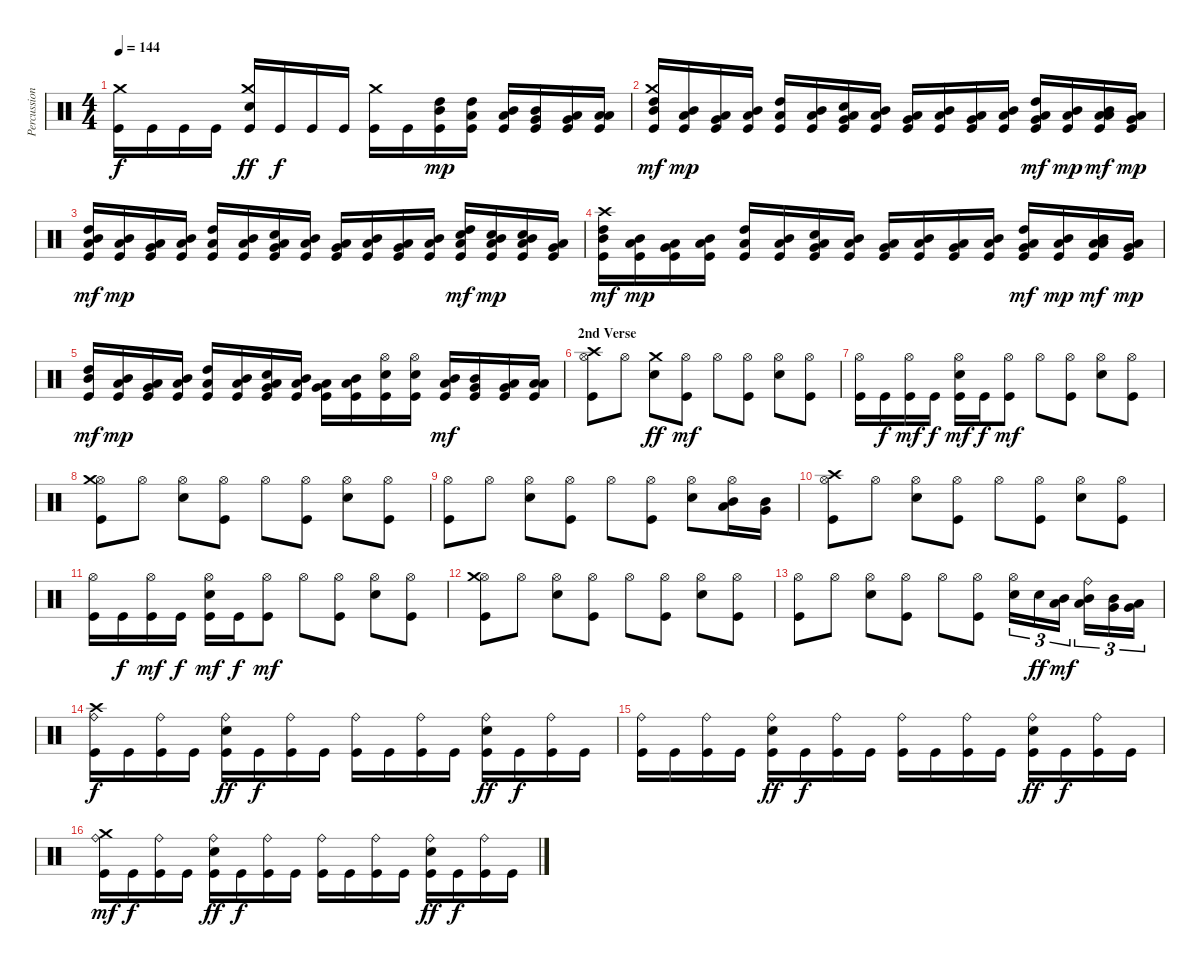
\track ("Percussions" "Percussion") {instrument percussion}
\staff {score}
\articulation defaults
\ts (4 4)
\tempo 144
\clef neutral
\ks c
("Kick (hit)" "Crash medium (hit)").16{dy f} "Kick (hit)".16 "Kick (hit)".16 "Kick (hit)".16 ("Kick (hit)" "Electric Snare (hit)" "Crash medium (hit)").16{dy ff} "Kick (hit)".16{dy f} "Kick (hit)".16 "Kick (hit)".16 ("Kick (hit)" "Crash medium (hit)").16 "Kick (hit)".16 ("Kick (hit)" "Mid Tom (hit)" "High Tom (hit)").16{dy mp} ("Kick (hit)" "Low Tom (hit)" "High Tom (hit)").16 ("Kick (hit)" "Low Tom (hit)" "Mid Tom (hit)").16 ("Kick (hit)" "Very Low Tom (hit)" "Mid Tom (hit)").16 ("Kick (hit)" "Very Low Tom (hit)" "Low Tom (hit)").16 ("Kick (hit)" "Low Floor Tom (hit)" "Low Tom (hit)").16 |
("Kick (hit)" "Mid Tom (hit)" "High Tom (hit)" "Crash medium (hit)").16{dy mf} ("Kick (hit)" "Low Tom (hit)" "Mid Tom (hit)").16{dy mp} ("Kick (hit)" "Very Low Tom (hit)" "Low Tom (hit)").16 ("Kick (hit)" "Low Tom (hit)" "Mid Tom (hit)").16 ("Kick (hit)" "Low Tom (hit)" "High Tom (hit)").16 ("Kick (hit)" "Low Tom (hit)" "Mid Tom (hit)").16 ("Kick (hit)" "Electric Snare (hit)" "Very Low Tom (hit)" "Low Tom (hit)").16 ("Kick (hit)" "Low Tom (hit)" "Mid Tom (hit)").16 ("Kick (hit)" "Very Low Tom (hit)" "Low Tom (hit)").16 ("Kick (hit)" "Low Tom (hit)" "Mid Tom (hit)").16 ("Kick (hit)" "Very Low Tom (hit)" "Low Tom (hit)").16 ("Kick (hit)" "Low Tom (hit)" "Mid Tom (hit)").16 ("Kick (hit)" "Low Tom (hit)" "High Tom (hit)" "Very Low Tom (hit)").16{dy mf} ("Kick (hit)" "Low Tom (hit)" "Mid Tom (hit)").16{dy mp} ("Kick (hit)" "Low Tom (hit)" "Mid Tom (hit)" "Low Floor Tom (hit)").16{dy mf} ("Kick (hit)" "Very Low Tom (hit)" "Low Tom (hit)").16{dy mp} |
("Kick (hit)" "Mid Tom (hit)" "High Tom (hit)" "Low Floor Tom (hit)").16{dy mf} ("Kick (hit)" "Low Tom (hit)" "Mid Tom (hit)").16{dy mp} ("Kick (hit)" "Very Low Tom (hit)" "Low Tom (hit)").16 ("Kick (hit)" "Low Tom (hit)" "Mid Tom (hit)").16 ("Kick (hit)" "Low Tom (hit)" "High Tom (hit)").16 ("Kick (hit)" "Low Tom (hit)" "Mid Tom (hit)").16 ("Kick (hit)" "Electric Snare (hit)" "Very Low Tom (hit)" "Low Tom (hit)").16 ("Kick (hit)" "Low Tom (hit)" "Mid Tom (hit)").16 ("Kick (hit)" "Very Low Tom (hit)" "Low Tom (hit)").16 ("Kick (hit)" "Low Tom (hit)" "Mid Tom (hit)").16 ("Kick (hit)" "Very Low Tom (hit)" "Low Tom (hit)").16 ("Kick (hit)" "Low Tom (hit)" "Mid Tom (hit)").16 ("Kick (hit)" "Electric Snare (hit)" "Low Tom (hit)" "High Tom (hit)").16{dy mf} ("Kick (hit)" "Electric Snare (hit)" "Low Tom (hit)" "Mid Tom (hit)").16{dy mp} ("Kick (hit)" "Electric Snare (hit)" "Low Tom (hit)" "Mid Tom (hit)").16 ("Kick (hit)" "Very Low Tom (hit)" "Low Tom (hit)").16 |
("Kick (hit)" "Mid Tom (hit)" "High Tom (hit)" "Crash high (hit)").16{dy mf} ("Kick (hit)" "Low Tom (hit)" "Mid Tom (hit)").16{dy mp} ("Kick (hit)" "Very Low Tom (hit)" "Low Tom (hit)").16 ("Kick (hit)" "Low Tom (hit)" "Mid Tom (hit)").16 ("Kick (hit)" "Low Tom (hit)" "High Tom (hit)").16 ("Kick (hit)" "Low Tom (hit)" "Mid Tom (hit)").16 ("Kick (hit)" "Electric Snare (hit)" "Very Low Tom (hit)" "Low Tom (hit)").16 ("Kick (hit)" "Low Tom (hit)" "Mid Tom (hit)").16 ("Kick (hit)" "Very Low Tom (hit)" "Low Tom (hit)").16 ("Kick (hit)" "Low Tom (hit)" "Mid Tom (hit)").16 ("Kick (hit)" "Very Low Tom (hit)" "Low Tom (hit)").16 ("Kick (hit)" "Low Tom (hit)" "Mid Tom (hit)").16 ("Kick (hit)" "Low Tom (hit)" "High Tom (hit)" "Very Low Tom (hit)").16{dy mf} ("Kick (hit)" "Low Tom (hit)" "Mid Tom (hit)").16{dy mp} ("Kick (hit)" "Low Tom (hit)" "Mid Tom (hit)" "Low Floor Tom (hit)").16{dy mf} ("Kick (hit)" "Very Low Tom (hit)" "Low Tom (hit)").16{dy mp} |
("Kick (hit)" "Mid Tom (hit)" "High Tom (hit)").16{dy mf} ("Kick (hit)" "Low Tom (hit)" "Mid Tom (hit)").16{dy mp} ("Kick (hit)" "Very Low Tom (hit)" "Low Tom (hit)").16 ("Kick (hit)" "Low Tom (hit)" "Mid Tom (hit)").16 ("Kick (hit)" "Low Tom (hit)" "High Tom (hit)").16 ("Kick (hit)" "Low Tom (hit)" "Mid Tom (hit)").16 ("Kick (hit)" "Electric Snare (hit)" "Very Low Tom (hit)" "Low Tom (hit)").16 ("Kick (hit)" "Low Tom (hit)" "Mid Tom (hit)").16 ("Kick (hit)" "Very Low Tom (hit)" "Low Tom (hit)").16 ("Kick (hit)" "Low Tom (hit)" "Mid Tom (hit)").16 ("Kick (hit)" "Electric Snare (hit)" "Hi-Hat (open)").16 ("Kick (hit)" "Electric Snare (hit)" "Hi-Hat (open)").16 ("Kick (hit)" "Low Tom (hit)" "Mid Tom (hit)").16{dy mf} ("Kick (hit)" "Very Low Tom (hit)" "Mid Tom (hit)").16 ("Kick (hit)" "Very Low Tom (hit)" "Low Tom (hit)").16 ("Kick (hit)" "Low Floor Tom (hit)" "Low Tom (hit)").16 |
\section ("" "2nd Verse")
("Kick (hit)" "Hi-Hat (open)" "Crash high (hit)").8 "Hi-Hat (open)".8 ("Electric Snare (hit)" "Crash medium (hit)").8{dy ff} ("Kick (hit)" "Hi-Hat (open)").8{dy mf} "Hi-Hat (open)".8 ("Kick (hit)" "Hi-Hat (open)").8 ("Electric Snare (hit)" "Hi-Hat (open)").8 ("Kick (hit)" "Hi-Hat (open)").8 |
("Kick (hit)" "Hi-Hat (open)").16 "Kick (hit)".16{dy f} ("Kick (hit)" "Hi-Hat (open)").16{dy mf} "Kick (hit)".16{dy f} ("Kick (hit)" "Electric Snare (hit)" "Hi-Hat (open)").16{dy mf} "Kick (hit)".16{dy f} ("Kick (hit)" "Hi-Hat (open)").8{dy mf} "Hi-Hat (open)".8 ("Kick (hit)" "Hi-Hat (open)").8 ("Electric Snare (hit)" "Hi-Hat (open)").8 ("Kick (hit)" "Hi-Hat (open)").8 |
("Kick (hit)" "Hi-Hat (open)" "Crash medium (hit)").8 "Hi-Hat (open)".8 ("Electric Snare (hit)" "Hi-Hat (open)").8 ("Kick (hit)" "Hi-Hat (open)").8 "Hi-Hat (open)".8 ("Kick (hit)" "Hi-Hat (open)").8 ("Electric Snare (hit)" "Hi-Hat (open)").8 ("Kick (hit)" "Hi-Hat (open)").8 |
("Kick (hit)" "Hi-Hat (open)").8 "Hi-Hat (open)".8 ("Electric Snare (hit)" "Hi-Hat (open)").8 ("Kick (hit)" "Hi-Hat (open)").8 "Hi-Hat (open)".8 ("Kick (hit)" "Hi-Hat (open)").8 ("Electric Snare (hit)" "Hi-Hat (open)").8 ("Low Tom (hit)" "Mid Tom (hit)" "Hi-Hat (open)").16 ("Very Low Tom (hit)" "Mid Tom (hit)").16 |
("Kick (hit)" "Hi-Hat (open)" "Crash high (hit)").8 "Hi-Hat (open)".8 ("Electric Snare (hit)" "Hi-Hat (open)").8 ("Kick (hit)" "Hi-Hat (open)").8 "Hi-Hat (open)".8 ("Kick (hit)" "Hi-Hat (open)").8 ("Electric Snare (hit)" "Hi-Hat (open)").8 ("Kick (hit)" "Hi-Hat (open)").8 |
("Kick (hit)" "Hi-Hat (open)").16 "Kick (hit)".16{dy f} ("Kick (hit)" "Hi-Hat (open)").16{dy mf} "Kick (hit)".16{dy f} ("Kick (hit)" "Electric Snare (hit)" "Hi-Hat (open)").16{dy mf} "Kick (hit)".16{dy f} ("Kick (hit)" "Hi-Hat (open)").8{dy mf} "Hi-Hat (open)".8 ("Kick (hit)" "Hi-Hat (open)").8 ("Electric Snare (hit)" "Hi-Hat (open)").8 ("Kick (hit)" "Hi-Hat (open)").8 |
("Kick (hit)" "Hi-Hat (open)" "Crash medium (hit)").8 "Hi-Hat (open)".8 ("Electric Snare (hit)" "Hi-Hat (open)").8 ("Kick (hit)" "Hi-Hat (open)").8 "Hi-Hat (open)".8 ("Kick (hit)" "Hi-Hat (open)").8 ("Electric Snare (hit)" "Hi-Hat (open)").8 ("Kick (hit)" "Hi-Hat (open)").8 |
("Kick (hit)" "Hi-Hat (open)").8 "Hi-Hat (open)".8 ("Electric Snare (hit)" "Hi-Hat (open)").8 ("Kick (hit)" "Hi-Hat (open)").8 "Hi-Hat (open)".8 ("Kick (hit)" "Hi-Hat (open)").8 ("Electric Snare (hit)" "Hi-Hat (open)").16{tu (3 2)} "Electric Snare (hit)".16{tu (3 2) dy ff} ("Low Tom (hit)" "Mid Tom (hit)").16{tu (3 2) dy mf} ("Low Tom (hit)" "Mid Tom (hit)" "Ride (bell)").16{tu (3 2)} ("Very Low Tom (hit)" "Mid Tom (hit)").16{tu (3 2)} ("Very Low Tom (hit)" "Low Tom (hit)").16{tu (3 2)} |
("Kick (hit)" "Ride (bell)" "Crash high (hit)").16{dy f} "Kick (hit)".16 ("Kick (hit)" "Ride (bell)").16 "Kick (hit)".16 ("Kick (hit)" "Electric Snare (hit)" "Ride (bell)").16{dy ff} "Kick (hit)".16{dy f} ("Kick (hit)" "Ride (bell)").16 "Kick (hit)".16 ("Kick (hit)" "Ride (bell)").16 "Kick (hit)".16 ("Kick (hit)" "Ride (bell)").16 "Kick (hit)".16 ("Kick (hit)" "Electric Snare (hit)" "Ride (bell)").16{dy ff} "Kick (hit)".16{dy f} ("Kick (hit)" "Ride (bell)").16 "Kick (hit)".16 |
("Kick (hit)" "Ride (bell)").16 "Kick (hit)".16 ("Kick (hit)" "Ride (bell)").16 "Kick (hit)".16 ("Kick (hit)" "Electric Snare (hit)" "Ride (bell)").16{dy ff} "Kick (hit)".16{dy f} ("Kick (hit)" "Ride (bell)").16 "Kick (hit)".16 ("Kick (hit)" "Ride (bell)").16 "Kick (hit)".16 ("Kick (hit)" "Ride (bell)").16 "Kick (hit)".16 ("Kick (hit)" "Electric Snare (hit)" "Ride (bell)").16{dy ff} "Kick (hit)".16{dy f} ("Kick (hit)" "Ride (bell)").16 "Kick (hit)".16 |
("Kick (hit)" "Ride (bell)" "Crash medium (hit)").16{dy mf} "Kick (hit)".16{dy f} ("Kick (hit)" "Ride (bell)").16 "Kick (hit)".16 ("Kick (hit)" "Electric Snare (hit)" "Ride (bell)").16{dy ff} "Kick (hit)".16{dy f} ("Kick (hit)" "Ride (bell)").16 "Kick (hit)".16 ("Kick (hit)" "Ride (bell)").16 "Kick (hit)".16 ("Kick (hit)" "Ride (bell)").16 "Kick (hit)".16 ("Kick (hit)" "Electric Snare (hit)" "Ride (bell)").16{dy ff} "Kick (hit)".16{dy f} ("Kick (hit)" "Ride (bell)").16 "Kick (hit)".16
